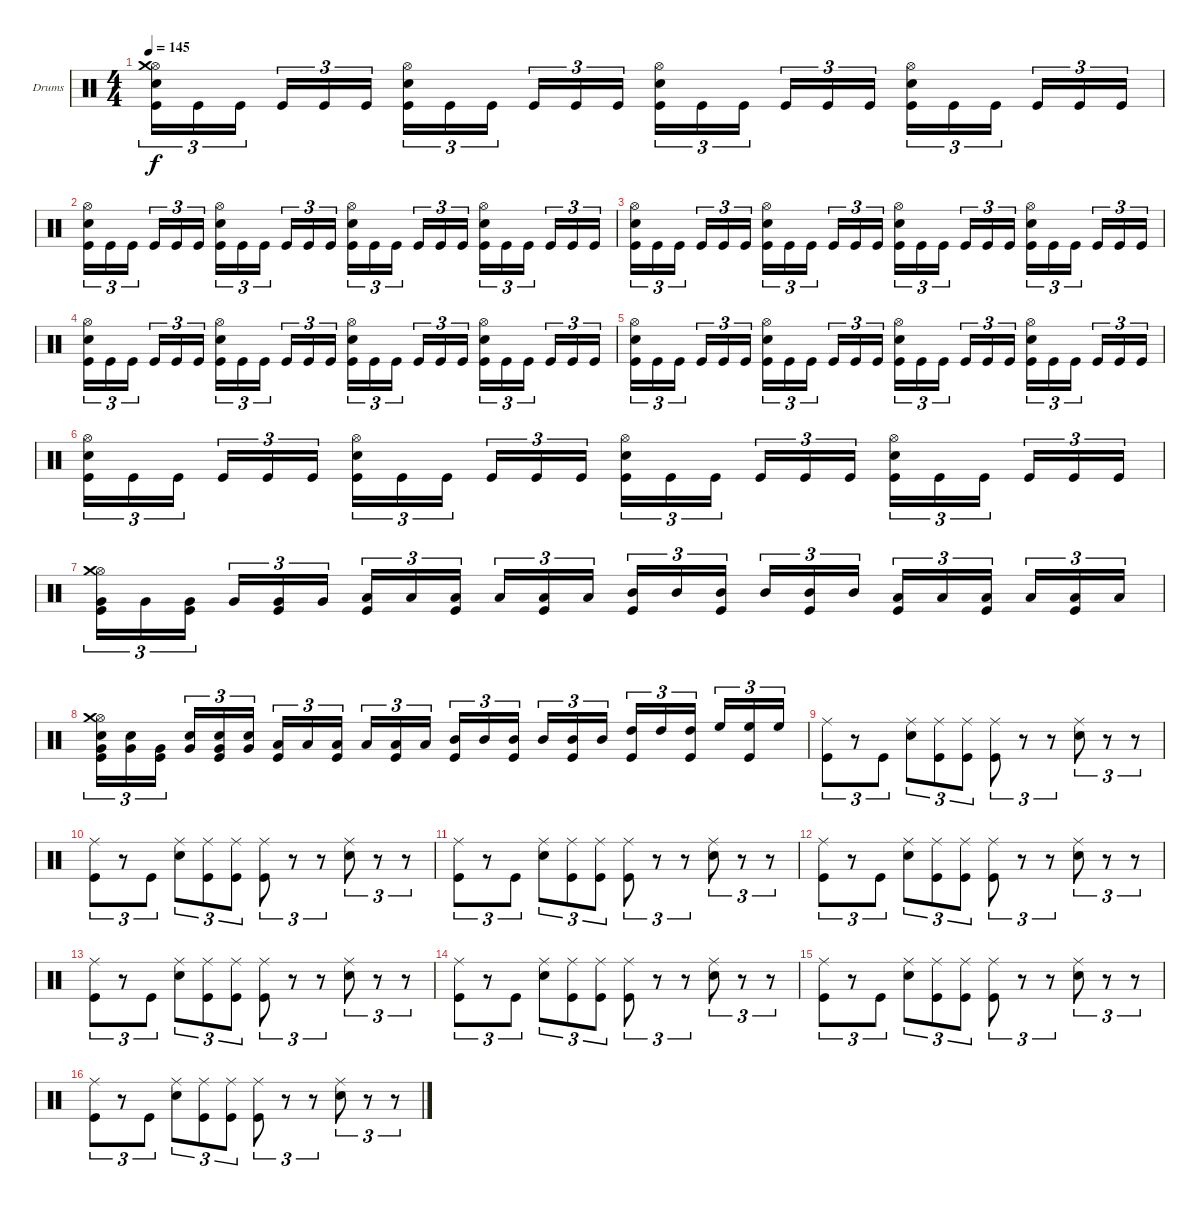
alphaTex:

\bracketExtendMode groupsimilarinstruments
\firstSystemTrackNameOrientation horizontal
\otherSystemsTrackNameOrientation horizontal
\track ("FREDRIK ANDERSSON" "Drums") {instrument percussion}
\staff {score}
\articulation defaults
\ts (4 4)
\tempo 145
\clef neutral
\ks c
("Hi-Hat (open)" "Snare (hit) 2" "Crash medium (hit)" "Kick (hit)").16{tu (3 2) dy f} "Kick (hit)".16{tu (3 2)} "Kick (hit)".16{tu (3 2)} "Kick (hit)".16{tu (3 2)} "Kick (hit)".16{tu (3 2)} "Kick (hit)".16{tu (3 2)} ("Hi-Hat (open)" "Snare (hit) 2" "Kick (hit)").16{tu (3 2)} "Kick (hit)".16{tu (3 2)} "Kick (hit)".16{tu (3 2)} "Kick (hit)".16{tu (3 2)} "Kick (hit)".16{tu (3 2)} "Kick (hit)".16{tu (3 2)} ("Hi-Hat (open)" "Snare (hit) 2" "Kick (hit)").16{tu (3 2)} "Kick (hit)".16{tu (3 2)} "Kick (hit)".16{tu (3 2)} "Kick (hit)".16{tu (3 2)} "Kick (hit)".16{tu (3 2)} "Kick (hit)".16{tu (3 2)} ("Hi-Hat (open)" "Snare (hit) 2" "Kick (hit)").16{tu (3 2)} "Kick (hit)".16{tu (3 2)} "Kick (hit)".16{tu (3 2)} "Kick (hit)".16{tu (3 2)} "Kick (hit)".16{tu (3 2)} "Kick (hit)".16{tu (3 2)} |
("Hi-Hat (open)" "Snare (hit) 2" "Kick (hit)").16{tu (3 2)} "Kick (hit)".16{tu (3 2)} "Kick (hit)".16{tu (3 2)} "Kick (hit)".16{tu (3 2)} "Kick (hit)".16{tu (3 2)} "Kick (hit)".16{tu (3 2)} ("Hi-Hat (open)" "Snare (hit) 2" "Kick (hit)").16{tu (3 2)} "Kick (hit)".16{tu (3 2)} "Kick (hit)".16{tu (3 2)} "Kick (hit)".16{tu (3 2)} "Kick (hit)".16{tu (3 2)} "Kick (hit)".16{tu (3 2)} ("Hi-Hat (open)" "Snare (hit) 2" "Kick (hit)").16{tu (3 2)} "Kick (hit)".16{tu (3 2)} "Kick (hit)".16{tu (3 2)} "Kick (hit)".16{tu (3 2)} "Kick (hit)".16{tu (3 2)} "Kick (hit)".16{tu (3 2)} ("Hi-Hat (open)" "Snare (hit) 2" "Kick (hit)").16{tu (3 2)} "Kick (hit)".16{tu (3 2)} "Kick (hit)".16{tu (3 2)} "Kick (hit)".16{tu (3 2)} "Kick (hit)".16{tu (3 2)} "Kick (hit)".16{tu (3 2)} |
("Hi-Hat (open)" "Snare (hit) 2" "Kick (hit)").16{tu (3 2)} "Kick (hit)".16{tu (3 2)} "Kick (hit)".16{tu (3 2)} "Kick (hit)".16{tu (3 2)} "Kick (hit)".16{tu (3 2)} "Kick (hit)".16{tu (3 2)} ("Hi-Hat (open)" "Snare (hit) 2" "Kick (hit)").16{tu (3 2)} "Kick (hit)".16{tu (3 2)} "Kick (hit)".16{tu (3 2)} "Kick (hit)".16{tu (3 2)} "Kick (hit)".16{tu (3 2)} "Kick (hit)".16{tu (3 2)} ("Hi-Hat (open)" "Snare (hit) 2" "Kick (hit)").16{tu (3 2)} "Kick (hit)".16{tu (3 2)} "Kick (hit)".16{tu (3 2)} "Kick (hit)".16{tu (3 2)} "Kick (hit)".16{tu (3 2)} "Kick (hit)".16{tu (3 2)} ("Hi-Hat (open)" "Snare (hit) 2" "Kick (hit)").16{tu (3 2)} "Kick (hit)".16{tu (3 2)} "Kick (hit)".16{tu (3 2)} "Kick (hit)".16{tu (3 2)} "Kick (hit)".16{tu (3 2)} "Kick (hit)".16{tu (3 2)} |
("Hi-Hat (open)" "Snare (hit) 2" "Kick (hit)").16{tu (3 2)} "Kick (hit)".16{tu (3 2)} "Kick (hit)".16{tu (3 2)} "Kick (hit)".16{tu (3 2)} "Kick (hit)".16{tu (3 2)} "Kick (hit)".16{tu (3 2)} ("Hi-Hat (open)" "Snare (hit) 2" "Kick (hit)").16{tu (3 2)} "Kick (hit)".16{tu (3 2)} "Kick (hit)".16{tu (3 2)} "Kick (hit)".16{tu (3 2)} "Kick (hit)".16{tu (3 2)} "Kick (hit)".16{tu (3 2)} ("Hi-Hat (open)" "Snare (hit) 2" "Kick (hit)").16{tu (3 2)} "Kick (hit)".16{tu (3 2)} "Kick (hit)".16{tu (3 2)} "Kick (hit)".16{tu (3 2)} "Kick (hit)".16{tu (3 2)} "Kick (hit)".16{tu (3 2)} ("Hi-Hat (open)" "Snare (hit) 2" "Kick (hit)").16{tu (3 2)} "Kick (hit)".16{tu (3 2)} "Kick (hit)".16{tu (3 2)} "Kick (hit)".16{tu (3 2)} "Kick (hit)".16{tu (3 2)} "Kick (hit)".16{tu (3 2)} |
("Hi-Hat (open)" "Snare (hit) 2" "Kick (hit)").16{tu (3 2)} "Kick (hit)".16{tu (3 2)} "Kick (hit)".16{tu (3 2)} "Kick (hit)".16{tu (3 2)} "Kick (hit)".16{tu (3 2)} "Kick (hit)".16{tu (3 2)} ("Hi-Hat (open)" "Snare (hit) 2" "Kick (hit)").16{tu (3 2)} "Kick (hit)".16{tu (3 2)} "Kick (hit)".16{tu (3 2)} "Kick (hit)".16{tu (3 2)} "Kick (hit)".16{tu (3 2)} "Kick (hit)".16{tu (3 2)} ("Hi-Hat (open)" "Snare (hit) 2" "Kick (hit)").16{tu (3 2)} "Kick (hit)".16{tu (3 2)} "Kick (hit)".16{tu (3 2)} "Kick (hit)".16{tu (3 2)} "Kick (hit)".16{tu (3 2)} "Kick (hit)".16{tu (3 2)} ("Hi-Hat (open)" "Snare (hit) 2" "Kick (hit)").16{tu (3 2)} "Kick (hit)".16{tu (3 2)} "Kick (hit)".16{tu (3 2)} "Kick (hit)".16{tu (3 2)} "Kick (hit)".16{tu (3 2)} "Kick (hit)".16{tu (3 2)} |
("Hi-Hat (open)" "Snare (hit) 2" "Kick (hit)").16{tu (3 2)} "Kick (hit)".16{tu (3 2)} "Kick (hit)".16{tu (3 2)} "Kick (hit)".16{tu (3 2)} "Kick (hit)".16{tu (3 2)} "Kick (hit)".16{tu (3 2)} ("Hi-Hat (open)" "Snare (hit) 2" "Kick (hit)").16{tu (3 2)} "Kick (hit)".16{tu (3 2)} "Kick (hit)".16{tu (3 2)} "Kick (hit)".16{tu (3 2)} "Kick (hit)".16{tu (3 2)} "Kick (hit)".16{tu (3 2)} ("Hi-Hat (open)" "Snare (hit) 2" "Kick (hit)").16{tu (3 2)} "Kick (hit)".16{tu (3 2)} "Kick (hit)".16{tu (3 2)} "Kick (hit)".16{tu (3 2)} "Kick (hit)".16{tu (3 2)} "Kick (hit)".16{tu (3 2)} ("Hi-Hat (open)" "Snare (hit) 2" "Kick (hit)").16{tu (3 2)} "Kick (hit)".16{tu (3 2)} "Kick (hit)".16{tu (3 2)} "Kick (hit)".16{tu (3 2)} "Kick (hit)".16{tu (3 2)} "Kick (hit)".16{tu (3 2)} |
("Hi-Hat (open)" "Crash medium (hit)" "Very Low Tom (hit)" "Kick (hit)").16{tu (3 2)} "Very Low Tom (hit)".16{tu (3 2)} ("Very Low Tom (hit)" "Kick (hit)").16{tu (3 2)} "Very Low Tom (hit)".16{tu (3 2)} ("Very Low Tom (hit)" "Kick (hit)").16{tu (3 2)} "Very Low Tom (hit)".16{tu (3 2)} ("Low Tom (hit)" "Kick (hit)").16{tu (3 2)} "Low Tom (hit)".16{tu (3 2)} ("Low Tom (hit)" "Kick (hit)").16{tu (3 2)} "Low Tom (hit)".16{tu (3 2)} ("Low Tom (hit)" "Kick (hit)").16{tu (3 2)} "Low Tom (hit)".16{tu (3 2)} ("Mid Tom (hit)" "Kick (hit)").16{tu (3 2)} "Mid Tom (hit)".16{tu (3 2)} ("Mid Tom (hit)" "Kick (hit)").16{tu (3 2)} "Mid Tom (hit)".16{tu (3 2)} ("Mid Tom (hit)" "Kick (hit)").16{tu (3 2)} "Mid Tom (hit)".16{tu (3 2)} ("Low Tom (hit)" "Kick (hit)").16{tu (3 2)} "Low Tom (hit)".16{tu (3 2)} ("Low Tom (hit)" "Kick (hit)").16{tu (3 2)} "Low Tom (hit)".16{tu (3 2)} ("Low Tom (hit)" "Kick (hit)").16{tu (3 2)} "Low Tom (hit)".16{tu (3 2)} |
("Hi-Hat (open)" "Crash medium (hit)" "Snare (hit) 2" "Very Low Tom (hit)" "Kick (hit)").16{tu (3 2)} ("Snare (hit) 2" "Very Low Tom (hit)").16{tu (3 2)} ("Very Low Tom (hit)" "Kick (hit)").16{tu (3 2)} ("Snare (hit) 2" "Very Low Tom (hit)").16{tu (3 2)} ("Snare (hit) 2" "Very Low Tom (hit)" "Kick (hit)").16{tu (3 2)} ("Snare (hit) 2" "Very Low Tom (hit)").16{tu (3 2)} ("Low Tom (hit)" "Kick (hit)").16{tu (3 2)} "Low Tom (hit)".16{tu (3 2)} ("Low Tom (hit)" "Kick (hit)").16{tu (3 2)} "Low Tom (hit)".16{tu (3 2)} ("Low Tom (hit)" "Kick (hit)").16{tu (3 2)} "Low Tom (hit)".16{tu (3 2)} ("Mid Tom (hit)" "Kick (hit)").16{tu (3 2)} "Mid Tom (hit)".16{tu (3 2)} ("Mid Tom (hit)" "Kick (hit)").16{tu (3 2)} "Mid Tom (hit)".16{tu (3 2)} ("Mid Tom (hit)" "Kick (hit)").16{tu (3 2)} "Mid Tom (hit)".16{tu (3 2)} ("High Tom (hit)" "Kick (hit)").16{tu (3 2)} "High Tom (hit)".16{tu (3 2)} ("High Tom (hit)" "Kick (hit)").16{tu (3 2)} "High Floor Tom (hit)".16{tu (3 2)} ("High Floor Tom (hit)" "Kick (hit)").16{tu (3 2)} "High Floor Tom (hit)".16{tu (3 2)} |
("Ride (middle)" "Kick (hit)").8{tu (3 2)} r.8{tu (3 2)} "Kick (hit)".8{tu (3 2)} ("Ride (middle)" "Snare (hit) 2").8{tu (3 2)} ("Ride (middle)" "Kick (hit)").8{tu (3 2)} ("Ride (middle)" "Kick (hit)").8{tu (3 2)} ("Ride (middle)" "Kick (hit)").8{tu (3 2)} r.8{tu (3 2)} r.8{tu (3 2)} ("Ride (middle)" "Snare (hit) 2").8{tu (3 2)} r.8{tu (3 2)} r.8{tu (3 2)} |
("Ride (middle)" "Kick (hit)").8{tu (3 2)} r.8{tu (3 2)} "Kick (hit)".8{tu (3 2)} ("Ride (middle)" "Snare (hit) 2").8{tu (3 2)} ("Ride (middle)" "Kick (hit)").8{tu (3 2)} ("Ride (middle)" "Kick (hit)").8{tu (3 2)} ("Ride (middle)" "Kick (hit)").8{tu (3 2)} r.8{tu (3 2)} r.8{tu (3 2)} ("Ride (middle)" "Snare (hit) 2").8{tu (3 2)} r.8{tu (3 2)} r.8{tu (3 2)} |
("Ride (middle)" "Kick (hit)").8{tu (3 2)} r.8{tu (3 2)} "Kick (hit)".8{tu (3 2)} ("Ride (middle)" "Snare (hit) 2").8{tu (3 2)} ("Ride (middle)" "Kick (hit)").8{tu (3 2)} ("Ride (middle)" "Kick (hit)").8{tu (3 2)} ("Ride (middle)" "Kick (hit)").8{tu (3 2)} r.8{tu (3 2)} r.8{tu (3 2)} ("Ride (middle)" "Snare (hit) 2").8{tu (3 2)} r.8{tu (3 2)} r.8{tu (3 2)} |
("Ride (middle)" "Kick (hit)").8{tu (3 2)} r.8{tu (3 2)} "Kick (hit)".8{tu (3 2)} ("Ride (middle)" "Snare (hit) 2").8{tu (3 2)} ("Ride (middle)" "Kick (hit)").8{tu (3 2)} ("Ride (middle)" "Kick (hit)").8{tu (3 2)} ("Ride (middle)" "Kick (hit)").8{tu (3 2)} r.8{tu (3 2)} r.8{tu (3 2)} ("Ride (middle)" "Snare (hit) 2").8{tu (3 2)} r.8{tu (3 2)} r.8{tu (3 2)} |
("Ride (middle)" "Kick (hit)").8{tu (3 2)} r.8{tu (3 2)} "Kick (hit)".8{tu (3 2)} ("Ride (middle)" "Snare (hit) 2").8{tu (3 2)} ("Ride (middle)" "Kick (hit)").8{tu (3 2)} ("Ride (middle)" "Kick (hit)").8{tu (3 2)} ("Ride (middle)" "Kick (hit)").8{tu (3 2)} r.8{tu (3 2)} r.8{tu (3 2)} ("Ride (middle)" "Snare (hit) 2").8{tu (3 2)} r.8{tu (3 2)} r.8{tu (3 2)} |
("Ride (middle)" "Kick (hit)").8{tu (3 2)} r.8{tu (3 2)} "Kick (hit)".8{tu (3 2)} ("Ride (middle)" "Snare (hit) 2").8{tu (3 2)} ("Ride (middle)" "Kick (hit)").8{tu (3 2)} ("Ride (middle)" "Kick (hit)").8{tu (3 2)} ("Ride (middle)" "Kick (hit)").8{tu (3 2)} r.8{tu (3 2)} r.8{tu (3 2)} ("Ride (middle)" "Snare (hit) 2").8{tu (3 2)} r.8{tu (3 2)} r.8{tu (3 2)} |
("Ride (middle)" "Kick (hit)").8{tu (3 2)} r.8{tu (3 2)} "Kick (hit)".8{tu (3 2)} ("Ride (middle)" "Snare (hit) 2").8{tu (3 2)} ("Ride (middle)" "Kick (hit)").8{tu (3 2)} ("Ride (middle)" "Kick (hit)").8{tu (3 2)} ("Ride (middle)" "Kick (hit)").8{tu (3 2)} r.8{tu (3 2)} r.8{tu (3 2)} ("Ride (middle)" "Snare (hit) 2").8{tu (3 2)} r.8{tu (3 2)} r.8{tu (3 2)} |
("Ride (middle)" "Kick (hit)").8{tu (3 2)} r.8{tu (3 2)} "Kick (hit)".8{tu (3 2)} ("Ride (middle)" "Snare (hit) 2").8{tu (3 2)} ("Ride (middle)" "Kick (hit)").8{tu (3 2)} ("Ride (middle)" "Kick (hit)").8{tu (3 2)} ("Ride (middle)" "Kick (hit)").8{tu (3 2)} r.8{tu (3 2)} r.8{tu (3 2)} ("Ride (middle)" "Snare (hit) 2").8{tu (3 2)} r.8{tu (3 2)} r.8{tu (3 2)}
